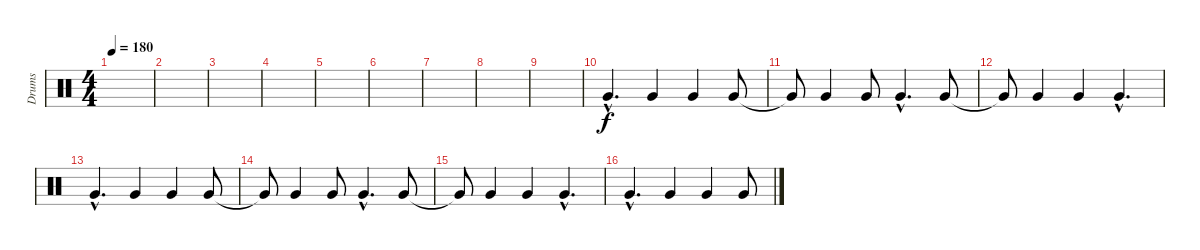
\track ("Drums" "Drums") {instrument percussion}
\staff {score}
\articulation defaults
\ts (4 4)
\tempo 180
\clef neutral
\ks c
|
|
|
|
|
|
|
|
|
"Very Low Tom (hit)"{hac}.4{d} "Very Low Tom (hit)".4 "Very Low Tom (hit)".4 "Very Low Tom (hit)".8 |
"Very Low Tom (hit)"{t}.8 "Very Low Tom (hit)".4 "Very Low Tom (hit)".8 "Very Low Tom (hit)"{hac}.4{d} "Very Low Tom (hit)".8 |
"Very Low Tom (hit)"{t}.8 "Very Low Tom (hit)".4 "Very Low Tom (hit)".4 "Very Low Tom (hit)"{hac}.4{d} |
"Very Low Tom (hit)"{hac}.4{d} "Very Low Tom (hit)".4 "Very Low Tom (hit)".4 "Very Low Tom (hit)".8 |
"Very Low Tom (hit)"{t}.8 "Very Low Tom (hit)".4 "Very Low Tom (hit)".8 "Very Low Tom (hit)"{hac}.4{d} "Very Low Tom (hit)".8 |
"Very Low Tom (hit)"{t}.8 "Very Low Tom (hit)".4 "Very Low Tom (hit)".4 "Very Low Tom (hit)"{hac}.4{d} |
"Very Low Tom (hit)"{hac}.4{d} "Very Low Tom (hit)".4 "Very Low Tom (hit)".4 "Very Low Tom (hit)".8
